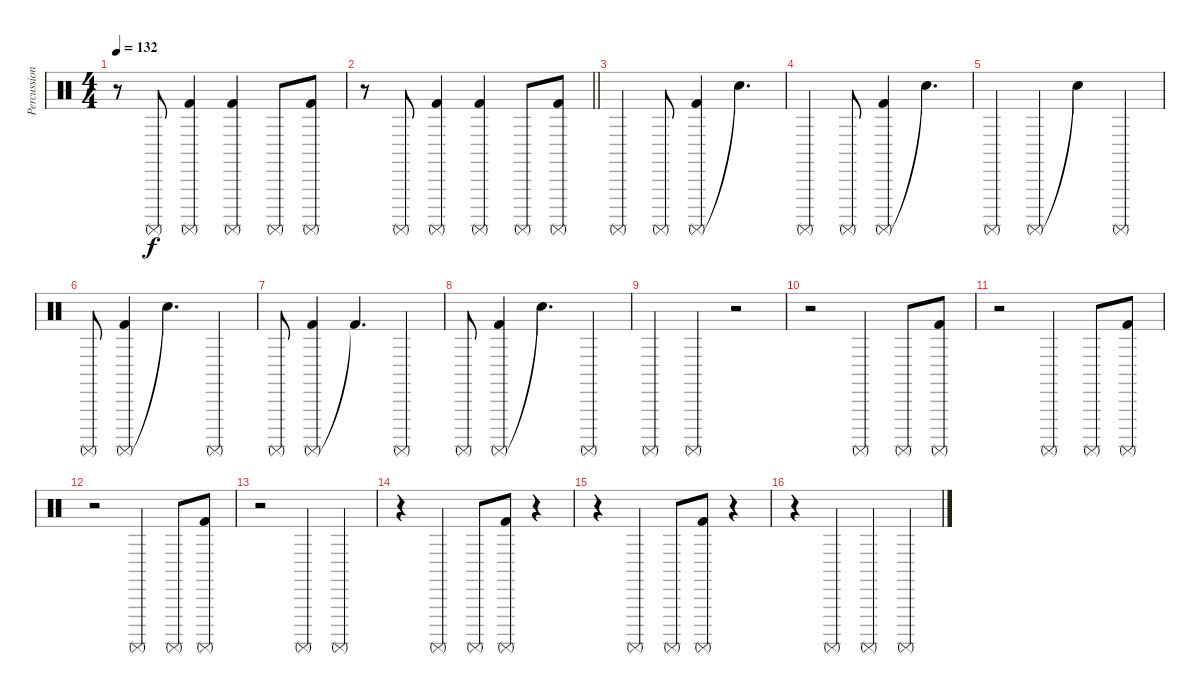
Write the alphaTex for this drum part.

\track ("Percussion" "Percussion") {instrument percussion}
\staff {score}
\articulation defaults
\ts (4 4)
\tempo 132
\clef neutral
\ks c
r.8{dy f} "Surdo (mute)".8 ("Surdo (mute)" "Kick (hit) 2").4 ("Surdo (mute)" "Kick (hit) 2").4 "Surdo (mute)".8 ("Surdo (mute)" "Kick (hit) 2").8 |
\barLineRight lightlight
r.8 "Surdo (mute)".8 ("Surdo (mute)" "Kick (hit) 2").4 ("Surdo (mute)" "Kick (hit) 2").4 "Surdo (mute)".8 ("Surdo (mute)" "Kick (hit) 2").8 |
\section ("" "")
"Surdo (mute)".4 "Surdo (mute)".8 ("Surdo (mute)" "Kick (hit) 2").4 "Snare (hit)"{t}.4{d} |
"Surdo (mute)".4 "Surdo (mute)".8 ("Surdo (mute)" "Kick (hit) 2").4 "Snare (hit)"{t}.4{d} |
"Surdo (mute)".4 "Surdo (mute)".4 "Snare (hit)"{t}.4 "Surdo (mute)".4 |
"Surdo (mute)".8 ("Surdo (mute)" "Kick (hit) 2").4 "Snare (hit)"{t}.4{d} "Surdo (mute)".4 |
"Surdo (mute)".8 ("Surdo (mute)" "Kick (hit) 2").4 "Kick (hit) 2"{t}.4{d} "Surdo (mute)".4 |
"Surdo (mute)".8 ("Surdo (mute)" "Kick (hit) 2").4 "Snare (hit)"{t}.4{d} "Surdo (mute)".4 |
"Surdo (mute)".4 "Surdo (mute)".4 r.2 |
r.2 "Surdo (mute)".4 "Surdo (mute)".8 ("Surdo (mute)" "Kick (hit) 2").8 |
r.2 "Surdo (mute)".4 "Surdo (mute)".8 ("Surdo (mute)" "Kick (hit) 2").8 |
r.2 "Surdo (mute)".4 "Surdo (mute)".8 ("Surdo (mute)" "Kick (hit) 2").8 |
r.2 "Surdo (mute)".4 "Surdo (mute)".4 |
r.4 "Surdo (mute)".4 "Surdo (mute)".8 ("Surdo (mute)" "Kick (hit) 2").8 r.4 |
r.4 "Surdo (mute)".4 "Surdo (mute)".8 ("Surdo (mute)" "Kick (hit) 2").8 r.4 |
r.4 "Surdo (mute)".4 "Surdo (mute)".4 "Surdo (mute)".4
